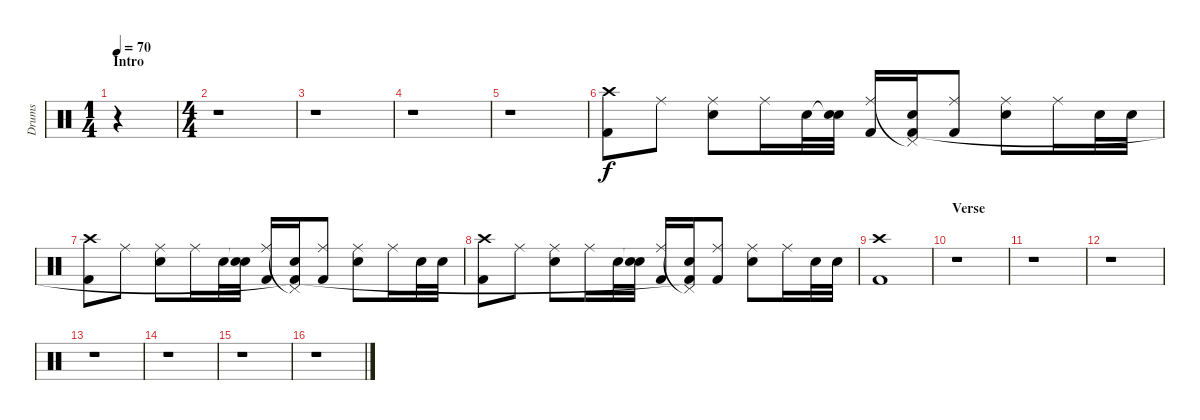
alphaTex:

\track ("Drums" "Drums") {instrument percussion}
\staff {score}
\articulation defaults
\ts (1 4)
\section ("" "Intro")
\tempo 70
\clef neutral
\ks c
r.4{dy f} |
\ts (4 4)
r.1 |
r.1 |
r.1 |
r.1 |
("Crash high (hit)" "Kick (hit) 2").8 "Ride (middle)".8 ("Ride (middle)" "Electric Snare (hit)").8 "Ride (middle)".16 "Electric Snare (hit)".32 ("Snare (hit)"{t} "Electric Snare (hit)").32 ("Ride (middle)" "Kick (hit) 2").16 ("Pedal Hi-Hat (hit)"{t} "Electric Snare (hit)" "Kick (hit) 2").16 ("Ride (middle)" "Kick (hit) 2").8 ("Ride (middle)" "Electric Snare (hit)").8 "Ride (middle)".16 "Electric Snare (hit)".32 "Electric Snare (hit)".32 |
("Crash high (hit)" "Kick (hit) 2").8 "Ride (middle)".8 ("Ride (middle)" "Electric Snare (hit)").8 "Ride (middle)".16 "Electric Snare (hit)".32 ("Snare (hit)"{t} "Electric Snare (hit)").32 ("Ride (middle)" "Kick (hit) 2").16 ("Pedal Hi-Hat (hit)"{t} "Electric Snare (hit)" "Kick (hit) 2"{t}).16 ("Ride (middle)" "Kick (hit) 2").8 ("Ride (middle)" "Electric Snare (hit)").8 "Ride (middle)".16 "Electric Snare (hit)".32 "Electric Snare (hit)".32 |
("Crash high (hit)" "Kick (hit) 2").8 "Ride (middle)".8 ("Ride (middle)" "Electric Snare (hit)").8 "Ride (middle)".16 "Electric Snare (hit)".32 ("Snare (hit)"{t} "Electric Snare (hit)").32 ("Ride (middle)" "Kick (hit) 2").16 ("Pedal Hi-Hat (hit)"{t} "Electric Snare (hit)" "Kick (hit) 2"{t}).16 ("Ride (middle)" "Kick (hit) 2").8 ("Ride (middle)" "Electric Snare (hit)").8 "Ride (middle)".16 "Electric Snare (hit)".32 "Electric Snare (hit)".32 |
("Crash high (hit)" "Kick (hit) 2").1 |
\section ("" "Verse")
r.1 |
r.1 |
r.1 |
r.1 |
r.1 |
r.1 |
r.1
